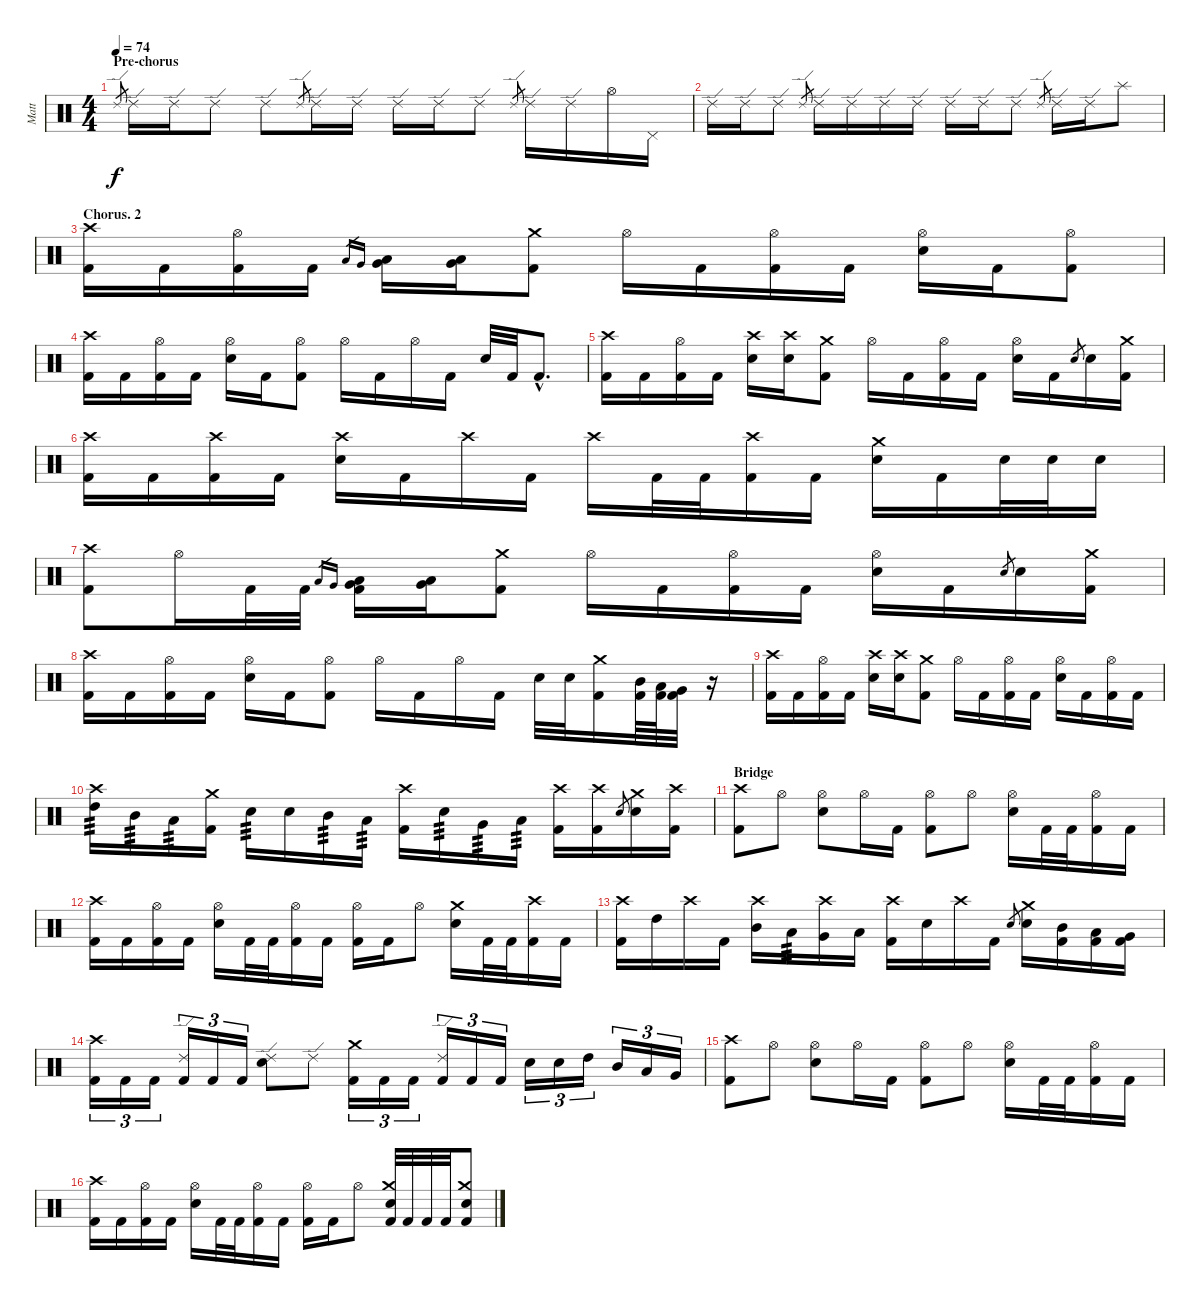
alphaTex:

\track ("Matt" "Matt") {instrument percussion}
\staff {score}
\articulation defaults
\ts (4 4)
\section ("" "Pre-chorus")
\tempo 74
\clef neutral
\ks c "Ride (edge) 2".8{gr dy f} "Ride (edge) 2".16 "Ride (edge) 2".16 "Ride (edge) 2".8 "Ride (edge) 2".8 "Ride (edge) 2".8{gr} "Ride (edge) 2".16 "Ride (edge) 2".16 "Ride (edge) 2".16 "Ride (edge) 2".16 "Ride (edge) 2".8 "Ride (edge) 2".8{gr} "Ride (edge) 2".16 "Ride (edge) 2".16 "Hi-Hat (open)".16 "Pedal Hi-Hat (hit)".16
|
"Ride (edge) 2".16 "Ride (edge) 2".16 "Ride (edge) 2".8 "Ride (edge) 2".8{gr} "Ride (edge) 2".16 "Ride (edge) 2".16 "Ride (edge) 2".16 "Ride (edge) 2".16 "Ride (edge) 2".16 "Ride (edge) 2".16 "Ride (edge) 2".8 "Ride (edge) 2".8{gr} "Ride (edge) 2".16 "Ride (edge) 2".16 "Splash (hit)".8 |
\section ("" "Chorus. 2")
("Crash high (hit)" "Kick (hit) 2").16 "Kick (hit) 2".16 ("Hi-Hat (open)" "Kick (hit) 2").16 "Kick (hit) 2".16 "Low Tom (hit)".16{gr} "Very Low Tom (hit)".16{gr} ("Low Tom (hit)" "Very Low Tom (hit)").16 ("Low Tom (hit)" "Very Low Tom (hit)").16 ("Crash medium (hit)" "Kick (hit) 2").8 "Hi-Hat (open)".16 "Kick (hit) 2".16 ("Hi-Hat (open)" "Kick (hit) 2").16 "Kick (hit) 2".16 ("Hi-Hat (open)" "Electric Snare (hit)").16 "Kick (hit) 2".16 ("Hi-Hat (open)" "Kick (hit) 2").8 |
("Crash high (hit)" "Kick (hit) 2").16 "Kick (hit) 2".16 ("Hi-Hat (open)" "Kick (hit) 2").16 "Kick (hit) 2".16 ("Hi-Hat (open)" "Electric Snare (hit)").16 "Kick (hit) 2".16 ("Hi-Hat (open)" "Kick (hit) 2").8 "Hi-Hat (open)".16 "Kick (hit) 2".16 "Hi-Hat (open)".16 "Kick (hit) 2".16 "Electric Snare (hit)".32 "Kick (hit) 2".32 "Kick (hit) 2"{hac}.8{d} |
("Crash high (hit)" "Kick (hit) 2").16 "Kick (hit) 2".16 ("Hi-Hat (open)" "Kick (hit) 2").16 "Kick (hit) 2".16 ("Crash high (hit)" "Electric Snare (hit)").16 ("Crash high (hit)" "Electric Snare (hit)").16 ("Crash medium (hit)" "Kick (hit) 2").8 "Hi-Hat (open)".16 "Kick (hit) 2".16 ("Hi-Hat (open)" "Kick (hit) 2").16 "Kick (hit) 2".16 ("Hi-Hat (open)" "Electric Snare (hit)").16 "Kick (hit) 2".16 "Electric Snare (hit)".8{gr} "Electric Snare (hit)".16 ("Crash medium (hit)" "Kick (hit) 2").16 |
("Crash high (hit)" "Kick (hit) 2").16 "Kick (hit) 2".16 ("Crash high (hit)" "Kick (hit) 2").16 "Kick (hit) 2".16 ("Crash high (hit)" "Electric Snare (hit)").16 "Kick (hit) 2".16 "Crash high (hit)".16 "Kick (hit) 2".16 "Crash high (hit)".16 "Kick (hit) 2".32 "Kick (hit) 2".32 ("Crash high (hit)" "Kick (hit) 2").16 "Kick (hit) 2".16 ("Crash medium (hit)" "Electric Snare (hit)").16 "Kick (hit) 2".16 "Electric Snare (hit)".32 "Electric Snare (hit)".32 "Electric Snare (hit)".16 |
("Crash high (hit)" "Kick (hit) 2").8 "Hi-Hat (open)".16 "Kick (hit) 2".32 "Kick (hit) 2".32 "Low Tom (hit)".16{gr} "Very Low Tom (hit)".16{gr} ("Low Tom (hit)" "Very Low Tom (hit)" "Kick (hit) 2").16 ("Low Tom (hit)" "Very Low Tom (hit)").16 ("Crash medium (hit)" "Kick (hit) 2").8 "Hi-Hat (open)".16 "Kick (hit) 2".16 ("Hi-Hat (open)" "Kick (hit) 2").16 "Kick (hit) 2".16 ("Hi-Hat (open)" "Electric Snare (hit)").16 "Kick (hit) 2".16 "Electric Snare (hit)".8{gr} "Electric Snare (hit)".16 ("Crash medium (hit)" "Kick (hit) 2").16 |
("Crash high (hit)" "Kick (hit) 2").16 "Kick (hit) 2".16 ("Hi-Hat (open)" "Kick (hit) 2").16 "Kick (hit) 2".16 ("Hi-Hat (open)" "Electric Snare (hit)").16 "Kick (hit) 2".16 ("Hi-Hat (open)" "Kick (hit) 2").8 "Hi-Hat (open)".16 "Kick (hit) 2".16 "Hi-Hat (open)".16 "Kick (hit) 2".16 "Electric Snare (hit)".32 "Electric Snare (hit)".32 ("Crash medium (hit)" "Kick (hit) 2").16 ("Mid Tom (hit)" "Kick (hit) 2").64 ("Low Tom (hit)" "Kick (hit) 2").64 ("Very Low Tom (hit)" "Kick (hit) 2").32 r.16 |
("Crash high (hit)" "Kick (hit) 2").16 "Kick (hit) 2".16 ("Hi-Hat (open)" "Kick (hit) 2").16 "Kick (hit) 2".16 ("Crash high (hit)" "Electric Snare (hit)").16 ("Crash high (hit)" "Electric Snare (hit)").16 ("Crash medium (hit)" "Kick (hit) 2").8 "Hi-Hat (open)".16 "Kick (hit) 2".16 ("Hi-Hat (open)" "Kick (hit) 2").16 "Kick (hit) 2".16 ("Hi-Hat (open)" "Electric Snare (hit)").16 "Kick (hit) 2".16 ("Hi-Hat (open)" "Kick (hit) 2").16 "Kick (hit) 2".16 |
("Crash high (hit)" "High Tom (hit)").16{tp 3} "Mid Tom (hit)".16{tp 3} "Low Tom (hit)".16{tp 3} ("Crash medium (hit)" "Kick (hit) 2").16 "Electric Snare (hit)".16{tp 3} "Electric Snare (hit)".16 "Mid Tom (hit)".16{tp 3} "Low Tom (hit)".16{tp 3} ("Crash high (hit)" "Kick (hit) 2").16 "Electric Snare (hit)".16{tp 3} "Very Low Tom (hit)".16{tp 3} "Low Floor Tom (hit)".16{tp 3} ("Crash high (hit)" "Kick (hit) 2").16 ("Crash high (hit)" "Kick (hit) 2").16 "Electric Snare (hit)".8{gr} ("Crash medium (hit)" "Electric Snare (hit)").16 ("Crash high (hit)" "Kick (hit) 2").16 |
\section ("" "Bridge")
("Crash high (hit)" "Kick (hit) 2").8 "Hi-Hat (open)".8 ("Hi-Hat (open)" "Electric Snare (hit)").8 "Hi-Hat (open)".16 "Kick (hit) 2".16 ("Hi-Hat (open)" "Kick (hit) 2").8 "Hi-Hat (open)".8 ("Hi-Hat (open)" "Electric Snare (hit)").16 "Kick (hit) 2".32 "Kick (hit) 2".32 ("Hi-Hat (open)" "Kick (hit) 2").16 "Kick (hit) 2".16 |
("Crash high (hit)" "Kick (hit) 2").16 "Kick (hit) 2".16 ("Hi-Hat (open)" "Kick (hit) 2").16 "Kick (hit) 2".16 ("Hi-Hat (open)" "Electric Snare (hit)").16 "Kick (hit) 2".32 "Kick (hit) 2".32 ("Hi-Hat (open)" "Kick (hit) 2").16 "Kick (hit) 2".16 ("Hi-Hat (open)" "Kick (hit) 2").16 "Kick (hit) 2".16 "Hi-Hat (open)".8 ("Crash medium (hit)" "Electric Snare (hit)").16 "Kick (hit) 2".32 "Kick (hit) 2".32 ("Crash high (hit)" "Kick (hit) 2").16 "Kick (hit) 2".16 |
("Crash high (hit)" "Kick (hit) 2").16 "High Tom (hit)".16 "Crash high (hit)".16 "Kick (hit) 2".16 ("Crash high (hit)" "Mid Tom (hit)").16 "Low Tom (hit)".16{tp 3} ("Crash high (hit)" "Very Low Tom (hit)").16 "Low Floor Tom (hit)".16 ("Crash high (hit)" "Kick (hit) 2").16 "Electric Snare (hit)".16 "Crash high (hit)".16 "Kick (hit) 2".16 "Electric Snare (hit)".8{gr} ("Crash medium (hit)" "Electric Snare (hit)").16 ("Mid Tom (hit)" "Kick (hit) 2").16 ("Low Tom (hit)" "Kick (hit) 2").16 ("Very Low Tom (hit)" "Kick (hit) 2").16 |
("Crash high (hit)" "Kick (hit) 2").16{tu (3 2)} "Kick (hit) 2".16{tu (3 2)} "Kick (hit) 2".16{tu (3 2)} ("Ride (edge) 2" "Kick (hit) 2").16{tu (3 2)} "Kick (hit) 2".16{tu (3 2)} "Kick (hit) 2".16{tu (3 2)} ("Ride (edge) 2" "Electric Snare (hit)").8 "Ride (edge) 2".8 ("Crash medium (hit)" "Kick (hit) 2").16{tu (3 2)} "Kick (hit) 2".16{tu (3 2)} "Kick (hit) 2".16{tu (3 2)} ("Ride (edge) 2" "Kick (hit) 2").16{tu (3 2)} "Kick (hit) 2".16{tu (3 2)} "Kick (hit) 2".16{tu (3 2)} "Electric Snare (hit)".16{tu (3 2)} "Electric Snare (hit)".16{tu (3 2)} "High Tom (hit)".16{tu (3 2)} "Mid Tom (hit)".16{tu (3 2)} "Low Tom (hit)".16{tu (3 2)} "Very Low Tom (hit)".16{tu (3 2)} |
("Crash high (hit)" "Kick (hit) 2").8 "Hi-Hat (open)".8 ("Hi-Hat (open)" "Electric Snare (hit)").8 "Hi-Hat (open)".16 "Kick (hit) 2".16 ("Hi-Hat (open)" "Kick (hit) 2").8 "Hi-Hat (open)".8 ("Hi-Hat (open)" "Electric Snare (hit)").16 "Kick (hit) 2".32 "Kick (hit) 2".32 ("Hi-Hat (open)" "Kick (hit) 2").16 "Kick (hit) 2".16 |
("Crash high (hit)" "Kick (hit) 2").16 "Kick (hit) 2".16 ("Hi-Hat (open)" "Kick (hit) 2").16 "Kick (hit) 2".16 ("Hi-Hat (open)" "Electric Snare (hit)").16 "Kick (hit) 2".32 "Kick (hit) 2".32 ("Hi-Hat (open)" "Kick (hit) 2").16 "Kick (hit) 2".16 ("Hi-Hat (open)" "Kick (hit) 2").16 "Kick (hit) 2".16 "Hi-Hat (open)".8 ("Crash medium (hit)" "Electric Snare (hit)" "Kick (hit) 2").32 "Kick (hit) 2".32 "Kick (hit) 2".32 "Kick (hit) 2".32 ("Crash medium (hit)" "Electric Snare (hit)" "Kick (hit) 2").8
